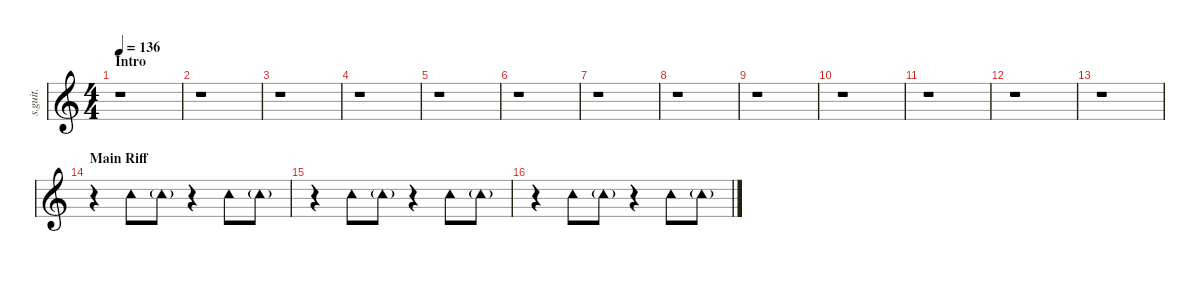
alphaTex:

\defaultSystemsLayout 4
\hideDynamics
\bracketExtendMode nobrackets
\track ("Tambourine" "s.guit.") {instrument percussion}
\staff {score}
\articulation defaults
\ts (4 4)
\beaming (8 2 2 2 2)
\section ("" "Intro")
\tempo 136
\clef g2
\ks c
r.1{dy mf} |
r.1 |
r.1 |
r.1 |
r.1 |
r.1 |
r.1 |
r.1 |
r.1 |
r.1 |
r.1 |
r.1 |
r.1 |
\section ("" "Main Riff")
r.4 "Tambourine (hit)".8{lyrics (0 "") lyrics (1 "") lyrics (2 "") lyrics (3 "") lyrics (4 "")} "Tambourine (hit)"{g}.8{lyrics (0 "") lyrics (1 "") lyrics (2 "") lyrics (3 "") lyrics (4 "")} r.4 "Tambourine (hit)".8{lyrics (0 "") lyrics (1 "") lyrics (2 "") lyrics (3 "") lyrics (4 "")} "Tambourine (hit)"{g}.8{lyrics (0 "") lyrics (1 "") lyrics (2 "") lyrics (3 "") lyrics (4 "")} |
r.4 "Tambourine (hit)".8{lyrics (0 "") lyrics (1 "") lyrics (2 "") lyrics (3 "") lyrics (4 "")} "Tambourine (hit)"{g}.8{lyrics (0 "") lyrics (1 "") lyrics (2 "") lyrics (3 "") lyrics (4 "")} r.4 "Tambourine (hit)".8{lyrics (0 "") lyrics (1 "") lyrics (2 "") lyrics (3 "") lyrics (4 "")} "Tambourine (hit)"{g}.8{lyrics (0 "") lyrics (1 "") lyrics (2 "") lyrics (3 "") lyrics (4 "")} |
r.4 "Tambourine (hit)".8{lyrics (0 "") lyrics (1 "") lyrics (2 "") lyrics (3 "") lyrics (4 "")} "Tambourine (hit)"{g}.8{lyrics (0 "") lyrics (1 "") lyrics (2 "") lyrics (3 "") lyrics (4 "")} r.4 "Tambourine (hit)".8{lyrics (0 "") lyrics (1 "") lyrics (2 "") lyrics (3 "") lyrics (4 "")} "Tambourine (hit)"{g}.8{lyrics (0 "") lyrics (1 "") lyrics (2 "") lyrics (3 "") lyrics (4 "")}
